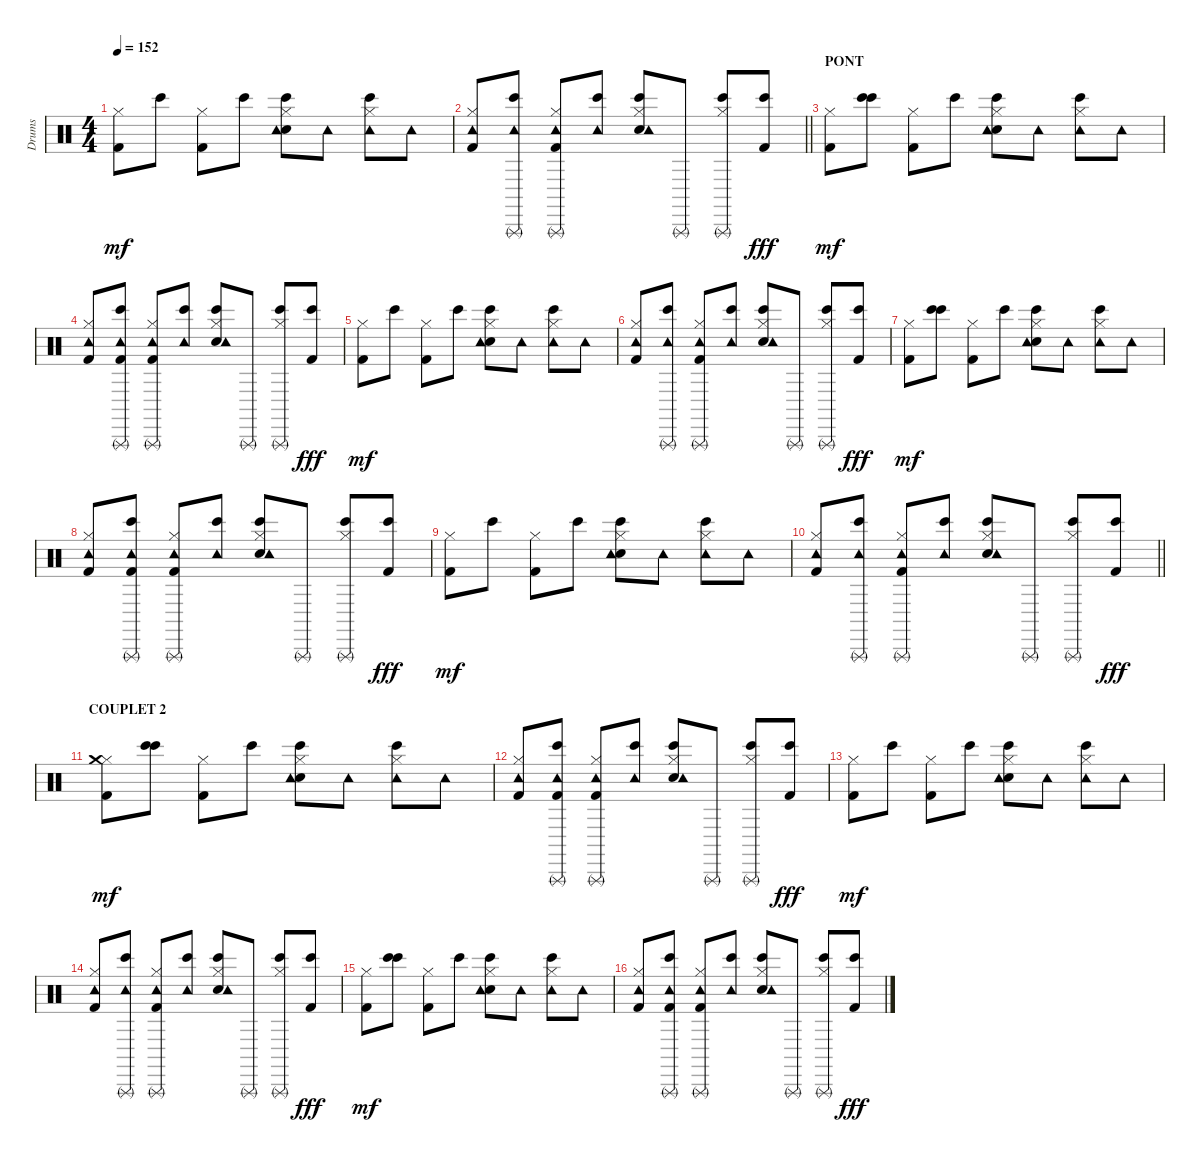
\track ("Drums" "Drums") {instrument percussion}
\staff {score}
\articulation defaults
\ts (4 4)
\tempo 152
\clef neutral
\ks c
("Kick (hit) 2" "Hi-Hat (closed)").8{dy mf} "Bongo High (hit)".8 ("Kick (hit) 2" "Hi-Hat (closed)").8 "Bongo High (hit)".8 ("Bongo High (hit)" "Electric Snare (hit)" "Hi-Hat (closed)" "Tambourine (hit)").8 "Tambourine (hit)".8 ("Tambourine (hit)" "Bongo High (hit)" "Hi-Hat (closed)").8 "Tambourine (hit)".8 |
\barLineRight lightlight
("Tambourine (hit)" "Kick (hit) 2" "Hi-Hat (closed)").8 ("Tambourine (hit)" "Bongo High (hit)" "Triangle (rnute)").8 ("Kick (hit) 2" "Hi-Hat (closed)" "Triangle (rnute)" "Tambourine (hit)").8 ("Tambourine (hit)" "Bongo High (hit)").8 ("Bongo High (hit)" "Electric Snare (hit)" "Hi-Hat (closed)" "Tambourine (hit)").8 "Triangle (rnute)".8 ("Bongo High (hit)" "Hi-Hat (closed)" "Triangle (rnute)").8 ("Bongo High (hit)" "Kick (hit) 2").8{dy fff} |
\section ("" "PONT")
("Kick (hit) 2" "Hi-Hat (closed)").8{dy mf} ("Bongo High (hit)" "Bongo High (hit)").8 ("Kick (hit) 2" "Hi-Hat (closed)").8 "Bongo High (hit)".8 ("Bongo High (hit)" "Electric Snare (hit)" "Hi-Hat (closed)" "Tambourine (hit)").8 "Tambourine (hit)".8 ("Tambourine (hit)" "Bongo High (hit)" "Hi-Hat (closed)").8 "Tambourine (hit)".8 |
("Tambourine (hit)" "Kick (hit) 2" "Hi-Hat (closed)").8 ("Tambourine (hit)" "Bongo High (hit)" "Kick (hit) 2" "Triangle (rnute)").8 ("Kick (hit) 2" "Hi-Hat (closed)" "Triangle (rnute)" "Tambourine (hit)").8 ("Tambourine (hit)" "Bongo High (hit)").8 ("Bongo High (hit)" "Electric Snare (hit)" "Hi-Hat (closed)" "Tambourine (hit)").8 "Triangle (rnute)".8 ("Bongo High (hit)" "Hi-Hat (closed)" "Triangle (rnute)").8 ("Bongo High (hit)" "Kick (hit) 2").8{dy fff} |
("Kick (hit) 2" "Hi-Hat (closed)").8{dy mf} "Bongo High (hit)".8 ("Kick (hit) 2" "Hi-Hat (closed)").8 "Bongo High (hit)".8 ("Bongo High (hit)" "Electric Snare (hit)" "Hi-Hat (closed)" "Tambourine (hit)").8 "Tambourine (hit)".8 ("Tambourine (hit)" "Bongo High (hit)" "Hi-Hat (closed)").8 "Tambourine (hit)".8 |
("Tambourine (hit)" "Kick (hit) 2" "Hi-Hat (closed)").8 ("Tambourine (hit)" "Bongo High (hit)" "Triangle (rnute)").8 ("Kick (hit) 2" "Hi-Hat (closed)" "Triangle (rnute)" "Tambourine (hit)").8 ("Tambourine (hit)" "Bongo High (hit)").8 ("Bongo High (hit)" "Electric Snare (hit)" "Hi-Hat (closed)" "Tambourine (hit)").8 "Triangle (rnute)".8 ("Bongo High (hit)" "Hi-Hat (closed)" "Triangle (rnute)").8 ("Bongo High (hit)" "Kick (hit) 2").8{dy fff} |
("Kick (hit) 2" "Hi-Hat (closed)").8{dy mf} ("Bongo High (hit)" "Bongo High (hit)").8 ("Kick (hit) 2" "Hi-Hat (closed)").8 "Bongo High (hit)".8 ("Bongo High (hit)" "Electric Snare (hit)" "Hi-Hat (closed)" "Tambourine (hit)").8 "Tambourine (hit)".8 ("Tambourine (hit)" "Bongo High (hit)" "Hi-Hat (closed)").8 "Tambourine (hit)".8 |
("Tambourine (hit)" "Kick (hit) 2" "Hi-Hat (closed)").8 ("Tambourine (hit)" "Bongo High (hit)" "Kick (hit) 2" "Triangle (rnute)").8 ("Kick (hit) 2" "Hi-Hat (closed)" "Triangle (rnute)" "Tambourine (hit)").8 ("Tambourine (hit)" "Bongo High (hit)").8 ("Bongo High (hit)" "Electric Snare (hit)" "Hi-Hat (closed)" "Tambourine (hit)").8 "Triangle (rnute)".8 ("Bongo High (hit)" "Hi-Hat (closed)" "Triangle (rnute)").8 ("Bongo High (hit)" "Kick (hit) 2").8{dy fff} |
("Kick (hit) 2" "Hi-Hat (closed)").8{dy mf} "Bongo High (hit)".8 ("Kick (hit) 2" "Hi-Hat (closed)").8 "Bongo High (hit)".8 ("Bongo High (hit)" "Electric Snare (hit)" "Hi-Hat (closed)" "Tambourine (hit)").8 "Tambourine (hit)".8 ("Tambourine (hit)" "Bongo High (hit)" "Hi-Hat (closed)").8 "Tambourine (hit)".8 |
\barLineRight lightlight
("Tambourine (hit)" "Kick (hit) 2" "Hi-Hat (closed)").8 ("Tambourine (hit)" "Bongo High (hit)" "Triangle (rnute)").8 ("Kick (hit) 2" "Hi-Hat (closed)" "Triangle (rnute)" "Tambourine (hit)").8 ("Tambourine (hit)" "Bongo High (hit)").8 ("Bongo High (hit)" "Electric Snare (hit)" "Hi-Hat (closed)" "Tambourine (hit)").8 "Triangle (rnute)".8 ("Bongo High (hit)" "Hi-Hat (closed)" "Triangle (rnute)").8 ("Bongo High (hit)" "Kick (hit) 2").8{dy fff} |
\section ("" "COUPLET 2")
("Kick (hit) 2" "Hi-Hat (closed)" "Crash medium (hit)").8{dy mf} ("Bongo High (hit)" "Bongo High (hit)").8 ("Kick (hit) 2" "Hi-Hat (closed)").8 "Bongo High (hit)".8 ("Bongo High (hit)" "Electric Snare (hit)" "Hi-Hat (closed)" "Tambourine (hit)").8 "Tambourine (hit)".8 ("Tambourine (hit)" "Bongo High (hit)" "Hi-Hat (closed)").8 "Tambourine (hit)".8 |
("Tambourine (hit)" "Kick (hit) 2" "Hi-Hat (closed)").8 ("Tambourine (hit)" "Bongo High (hit)" "Kick (hit) 2" "Triangle (rnute)").8 ("Kick (hit) 2" "Hi-Hat (closed)" "Triangle (rnute)" "Tambourine (hit)").8 ("Tambourine (hit)" "Bongo High (hit)").8 ("Bongo High (hit)" "Electric Snare (hit)" "Hi-Hat (closed)" "Tambourine (hit)").8 "Triangle (rnute)".8 ("Bongo High (hit)" "Hi-Hat (closed)" "Triangle (rnute)").8 ("Bongo High (hit)" "Kick (hit) 2").8{dy fff} |
("Kick (hit) 2" "Hi-Hat (closed)").8{dy mf} "Bongo High (hit)".8 ("Kick (hit) 2" "Hi-Hat (closed)").8 "Bongo High (hit)".8 ("Bongo High (hit)" "Electric Snare (hit)" "Hi-Hat (closed)" "Tambourine (hit)").8 "Tambourine (hit)".8 ("Tambourine (hit)" "Bongo High (hit)" "Hi-Hat (closed)").8 "Tambourine (hit)".8 |
("Tambourine (hit)" "Kick (hit) 2" "Hi-Hat (closed)").8 ("Tambourine (hit)" "Bongo High (hit)" "Triangle (rnute)").8 ("Kick (hit) 2" "Hi-Hat (closed)" "Triangle (rnute)" "Tambourine (hit)").8 ("Tambourine (hit)" "Bongo High (hit)").8 ("Bongo High (hit)" "Electric Snare (hit)" "Hi-Hat (closed)" "Tambourine (hit)").8 "Triangle (rnute)".8 ("Bongo High (hit)" "Hi-Hat (closed)" "Triangle (rnute)").8 ("Bongo High (hit)" "Kick (hit) 2").8{dy fff} |
("Kick (hit) 2" "Hi-Hat (closed)").8{dy mf} ("Bongo High (hit)" "Bongo High (hit)").8 ("Kick (hit) 2" "Hi-Hat (closed)").8 "Bongo High (hit)".8 ("Bongo High (hit)" "Electric Snare (hit)" "Hi-Hat (closed)" "Tambourine (hit)").8 "Tambourine (hit)".8 ("Tambourine (hit)" "Bongo High (hit)" "Hi-Hat (closed)").8 "Tambourine (hit)".8 |
("Tambourine (hit)" "Kick (hit) 2" "Hi-Hat (closed)").8 ("Tambourine (hit)" "Bongo High (hit)" "Kick (hit) 2" "Triangle (rnute)").8 ("Kick (hit) 2" "Hi-Hat (closed)" "Triangle (rnute)" "Tambourine (hit)").8 ("Tambourine (hit)" "Bongo High (hit)").8 ("Bongo High (hit)" "Electric Snare (hit)" "Hi-Hat (closed)" "Tambourine (hit)").8 "Triangle (rnute)".8 ("Bongo High (hit)" "Hi-Hat (closed)" "Triangle (rnute)").8 ("Bongo High (hit)" "Kick (hit) 2").8{dy fff}
